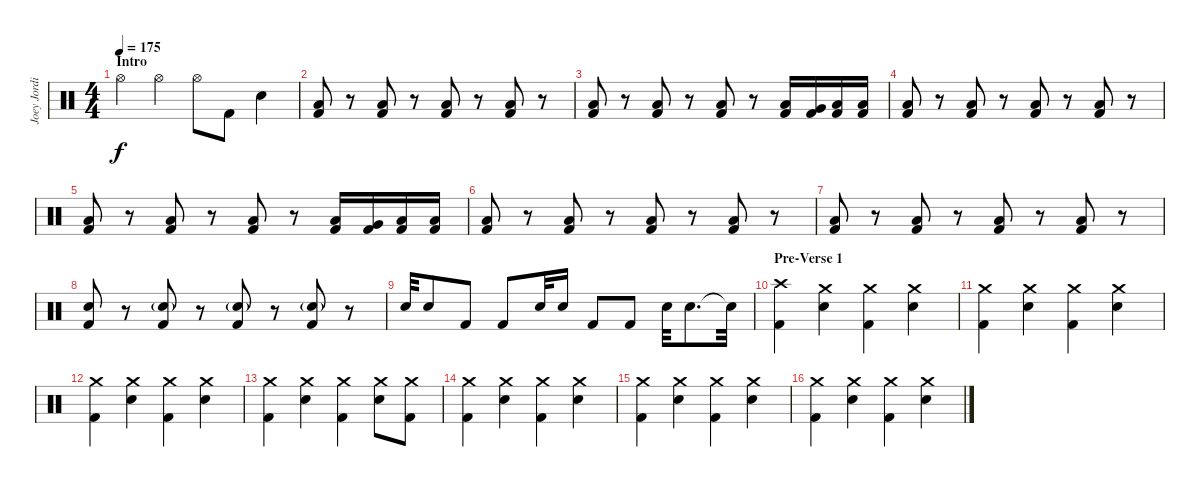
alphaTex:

\track ("Joey Jordison (Drums)" "Joey Jordi") {instrument percussion}
\staff {score}
\articulation defaults
\ts (4 4)
\section ("" "Intro")
\tempo 175
\clef neutral
\ks c "Hi-Hat (open)".4{dy f} "Hi-Hat (open)".4 "Hi-Hat (open)".8 "Kick (hit) 2".8 "Electric Snare (hit)".4
|
("Low Floor Tom (hit)" "Kick (hit) 2").8 r.8 ("Low Floor Tom (hit)" "Kick (hit) 2").8 r.8 ("Low Floor Tom (hit)" "Kick (hit) 2").8 r.8 ("Low Floor Tom (hit)" "Kick (hit) 2").8 r.8 |
("Low Floor Tom (hit)" "Kick (hit) 2").8 r.8 ("Low Floor Tom (hit)" "Kick (hit) 2").8 r.8 ("Low Floor Tom (hit)" "Kick (hit) 2").8 r.8 ("Low Floor Tom (hit)" "Kick (hit) 2").16 ("Very Low Tom (hit)" "Kick (hit) 2").16 ("Low Floor Tom (hit)" "Kick (hit) 2").16 ("Low Floor Tom (hit)" "Kick (hit) 2").16 |
("Low Floor Tom (hit)" "Kick (hit) 2").8 r.8 ("Low Floor Tom (hit)" "Kick (hit) 2").8 r.8 ("Low Floor Tom (hit)" "Kick (hit) 2").8 r.8 ("Low Floor Tom (hit)" "Kick (hit) 2").8 r.8 |
("Low Floor Tom (hit)" "Kick (hit) 2").8 r.8 ("Low Floor Tom (hit)" "Kick (hit) 2").8 r.8 ("Low Floor Tom (hit)" "Kick (hit) 2").8 r.8 ("Low Floor Tom (hit)" "Kick (hit) 2").16 ("Very Low Tom (hit)" "Kick (hit) 2").16 ("Low Floor Tom (hit)" "Kick (hit) 2").16 ("Low Floor Tom (hit)" "Kick (hit) 2").16 |
("Low Floor Tom (hit)" "Kick (hit) 2").8 r.8 ("Low Floor Tom (hit)" "Kick (hit) 2").8 r.8 ("Low Floor Tom (hit)" "Kick (hit) 2").8 r.8 ("Low Floor Tom (hit)" "Kick (hit) 2").8 r.8 |
("Low Floor Tom (hit)" "Kick (hit) 2").8 r.8 ("Low Floor Tom (hit)" "Kick (hit) 2").8 r.8 ("Low Floor Tom (hit)" "Kick (hit) 2").8 r.8 ("Low Floor Tom (hit)" "Kick (hit) 2").8 r.8 |
("Electric Snare (hit)" "Kick (hit) 2").8 r.8 ("Electric Snare (hit)"{g} "Kick (hit) 2").8 r.8 ("Electric Snare (hit)"{g} "Kick (hit) 2").8 r.8 ("Electric Snare (hit)"{g} "Kick (hit) 2").8 r.8 |
"Electric Snare (hit)".32 "Electric Snare (hit)".8 "Kick (hit) 2".8 "Kick (hit) 2".8 "Electric Snare (hit)".32 "Electric Snare (hit)".16 "Kick (hit) 2".8 "Kick (hit) 2".8 "Electric Snare (hit)".32 "Electric Snare (hit)".8{d} "Electric Snare (hit)"{t}.32 |
\section ("" "Pre-Verse 1")
("Crash high (hit)" "Kick (hit) 2").4 ("Crash medium (hit)" "Electric Snare (hit)").4 ("Crash medium (hit)" "Kick (hit) 2").4 ("Crash medium (hit)" "Electric Snare (hit)").4 |
("Crash medium (hit)" "Kick (hit) 2").4 ("Crash medium (hit)" "Electric Snare (hit)").4 ("Crash medium (hit)" "Kick (hit) 2").4 ("Crash medium (hit)" "Electric Snare (hit)").4 |
("Crash medium (hit)" "Kick (hit) 2").4 ("Crash medium (hit)" "Electric Snare (hit)").4 ("Crash medium (hit)" "Kick (hit) 2").4 ("Crash medium (hit)" "Electric Snare (hit)").4 |
("Crash medium (hit)" "Kick (hit) 2").4 ("Crash medium (hit)" "Electric Snare (hit)").4 ("Crash medium (hit)" "Kick (hit) 2").4 ("Crash medium (hit)" "Electric Snare (hit)").8 ("Crash medium (hit)" "Kick (hit) 2").8 |
("Crash medium (hit)" "Kick (hit) 2").4 ("Crash medium (hit)" "Electric Snare (hit)").4 ("Crash medium (hit)" "Kick (hit) 2").4 ("Crash medium (hit)" "Electric Snare (hit)").4 |
("Crash medium (hit)" "Kick (hit) 2").4 ("Crash medium (hit)" "Electric Snare (hit)").4 ("Crash medium (hit)" "Kick (hit) 2").4 ("Crash medium (hit)" "Electric Snare (hit)").4 |
("Crash medium (hit)" "Kick (hit) 2").4 ("Crash medium (hit)" "Electric Snare (hit)").4 ("Crash medium (hit)" "Kick (hit) 2").4 ("Crash medium (hit)" "Electric Snare (hit)").4
